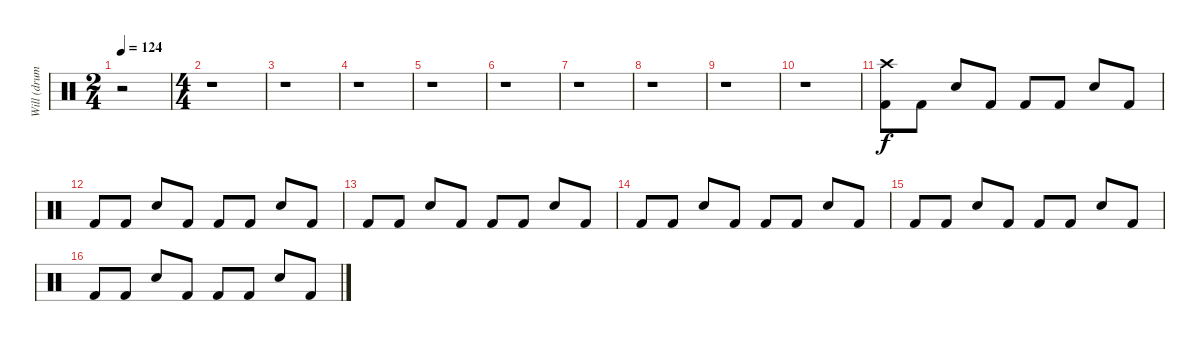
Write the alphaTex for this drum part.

\track ("Will (drums)" "Will (drum") {instrument percussion}
\staff {score}
\articulation defaults
\ts (2 4)
\tempo 124
\clef neutral
\ks c
r.2{dy f} |
\ts (4 4)
r.1 |
r.1 |
r.1 |
r.1 |
r.1 |
r.1 |
r.1 |
r.1 |
r.1 |
("Kick (hit) 2" "Crash high (hit)").8 "Kick (hit) 2".8 "Snare (hit) 2".8 "Kick (hit) 2".8 "Kick (hit) 2".8 "Kick (hit) 2".8 "Snare (hit) 2".8 "Kick (hit) 2".8 |
"Kick (hit) 2".8 "Kick (hit) 2".8 "Snare (hit) 2".8 "Kick (hit) 2".8 "Kick (hit) 2".8 "Kick (hit) 2".8 "Snare (hit) 2".8 "Kick (hit) 2".8 |
"Kick (hit) 2".8 "Kick (hit) 2".8 "Snare (hit) 2".8 "Kick (hit) 2".8 "Kick (hit) 2".8 "Kick (hit) 2".8 "Snare (hit) 2".8 "Kick (hit) 2".8 |
"Kick (hit) 2".8 "Kick (hit) 2".8 "Snare (hit) 2".8 "Kick (hit) 2".8 "Kick (hit) 2".8 "Kick (hit) 2".8 "Snare (hit) 2".8 "Kick (hit) 2".8 |
"Kick (hit) 2".8 "Kick (hit) 2".8 "Snare (hit) 2".8 "Kick (hit) 2".8 "Kick (hit) 2".8 "Kick (hit) 2".8 "Snare (hit) 2".8 "Kick (hit) 2".8 |
"Kick (hit) 2".8 "Kick (hit) 2".8 "Snare (hit) 2".8 "Kick (hit) 2".8 "Kick (hit) 2".8 "Kick (hit) 2".8 "Snare (hit) 2".8 "Kick (hit) 2".8
